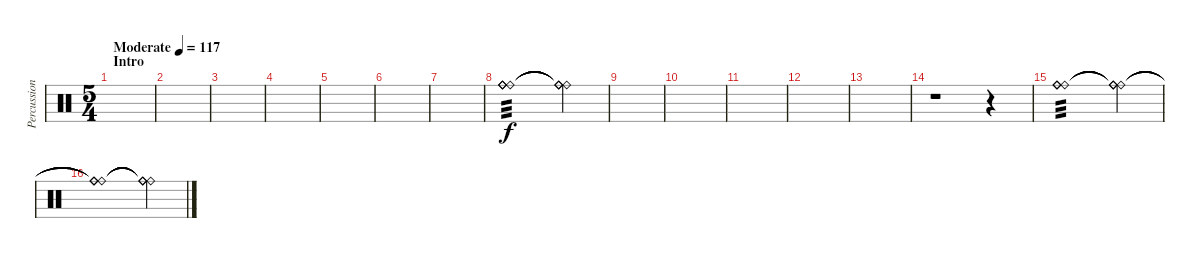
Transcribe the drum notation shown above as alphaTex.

\track ("Percussion" "Percussion") {instrument percussion}
\staff {score}
\articulation defaults
\ts (5 4)
\section ("" "Intro")
\tempo (117 "Moderate")
\clef neutral
\ks c
|
|
|
|
|
|
|
("Ride (bell)" "Ride (bell)" "Ride (bell)" "Ride (bell)").1{tp 3 volume 10} ("Ride (bell)"{t} "Ride (bell)"{t} "Ride (bell)"{t} "Ride (bell)"{t}).4 |
|
|
|
|
|
r.1{volume 7} r.4 |
("Ride (bell)" "Ride (bell)" "Ride (bell)" "Ride (bell)").1{tp 3 volume 7} ("Ride (bell)"{t} "Ride (bell)"{t} "Ride (bell)"{t} "Ride (bell)"{t}).4{volume 14} |
("Ride (bell)"{t} "Ride (bell)"{t} "Ride (bell)"{t} "Ride (bell)"{t}).1 ("Ride (bell)"{t} "Ride (bell)"{t} "Ride (bell)"{t} "Ride (bell)"{t}).4
